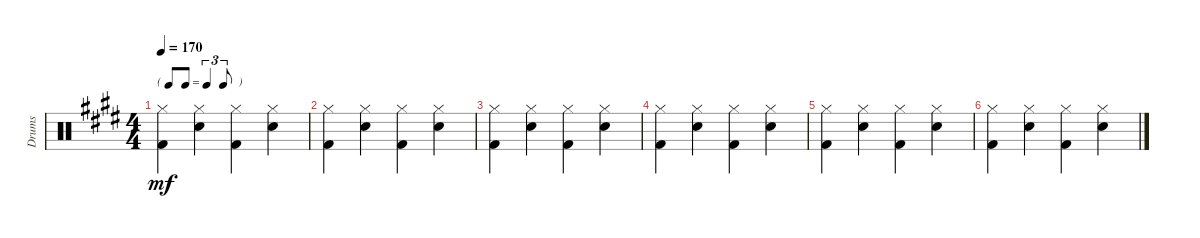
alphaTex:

\track ("Drums" "Drums") {instrument percussion}
\staff {score}
\articulation defaults
\ts (4 4)
\tf triplet8th
\tempo 170
\clef neutral
\ks e
("Kick (hit) 2" "Hi-Hat (closed)").4{dy mf} ("Snare (hit) 2" "Hi-Hat (closed)").4 ("Kick (hit) 2" "Hi-Hat (closed)").4 ("Snare (hit) 2" "Hi-Hat (closed)").4 |
("Kick (hit) 2" "Hi-Hat (closed)").4 ("Snare (hit) 2" "Hi-Hat (closed)").4 ("Kick (hit) 2" "Hi-Hat (closed)").4 ("Snare (hit) 2" "Hi-Hat (closed)").4 |
("Kick (hit) 2" "Hi-Hat (closed)").4 ("Snare (hit) 2" "Hi-Hat (closed)").4 ("Kick (hit) 2" "Hi-Hat (closed)").4 ("Snare (hit) 2" "Hi-Hat (closed)").4 |
("Kick (hit) 2" "Hi-Hat (closed)").4 ("Snare (hit) 2" "Hi-Hat (closed)").4 ("Kick (hit) 2" "Hi-Hat (closed)").4 ("Snare (hit) 2" "Hi-Hat (closed)").4 |
("Kick (hit) 2" "Hi-Hat (closed)").4 ("Snare (hit) 2" "Hi-Hat (closed)").4 ("Kick (hit) 2" "Hi-Hat (closed)").4 ("Snare (hit) 2" "Hi-Hat (closed)").4 |
("Kick (hit) 2" "Hi-Hat (closed)").4 ("Snare (hit) 2" "Hi-Hat (closed)").4 ("Kick (hit) 2" "Hi-Hat (closed)").4 ("Snare (hit) 2" "Hi-Hat (closed)").4
